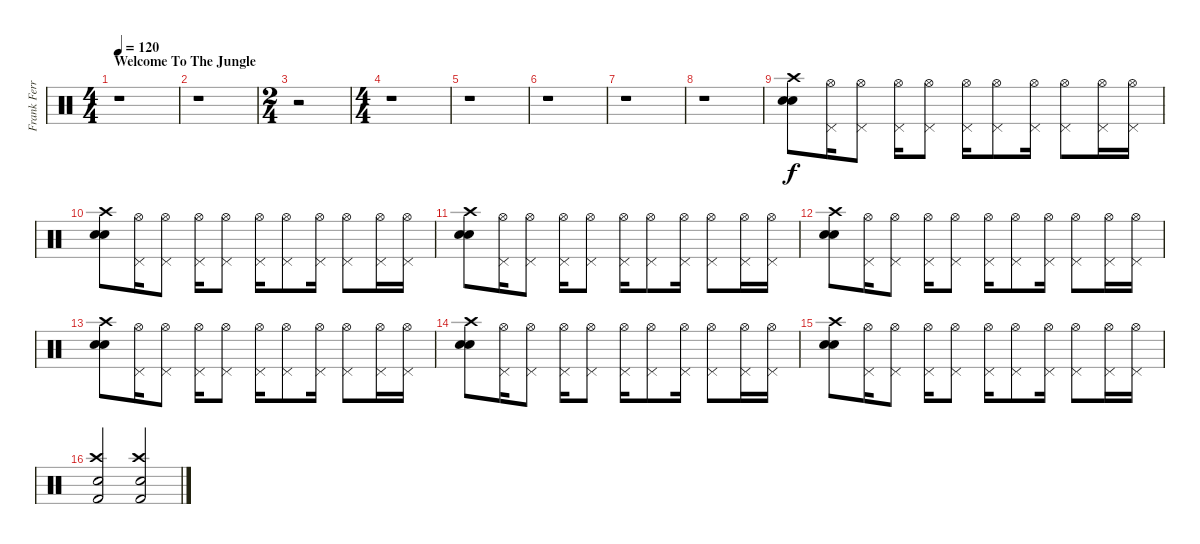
\track ("Frank Ferrer" "Frank Ferr") {instrument percussion}
\staff {score}
\articulation defaults
\ts (4 4)
\section ("" "Welcome To The Jungle")
\tempo 120
\tempo 104
\tempo 120
\clef neutral
\ks c
r.1{dy f} |
r.1 |
\ts (2 4)
r.2 |
\ts (4 4)
r.1 |
r.1 |
r.1 |
r.1 |
r.1 |
("Electric Snare (hit)" "Crash high (hit)" "Snare (hit) 2").8 ("Pedal Hi-Hat (hit)" "Hi-Hat (open)").16 ("Pedal Hi-Hat (hit)" "Hi-Hat (open)").8 ("Pedal Hi-Hat (hit)" "Hi-Hat (open)").16 ("Pedal Hi-Hat (hit)" "Hi-Hat (open)").8 ("Pedal Hi-Hat (hit)" "Hi-Hat (open)").16 ("Pedal Hi-Hat (hit)" "Hi-Hat (open)").8 ("Pedal Hi-Hat (hit)" "Hi-Hat (open)").16 ("Pedal Hi-Hat (hit)" "Hi-Hat (open)").8 ("Pedal Hi-Hat (hit)" "Hi-Hat (open)").16 ("Pedal Hi-Hat (hit)" "Hi-Hat (open)").16 |
("Electric Snare (hit)" "Crash high (hit)" "Snare (hit) 2").8 ("Pedal Hi-Hat (hit)" "Hi-Hat (open)").16 ("Pedal Hi-Hat (hit)" "Hi-Hat (open)").8 ("Pedal Hi-Hat (hit)" "Hi-Hat (open)").16 ("Pedal Hi-Hat (hit)" "Hi-Hat (open)").8 ("Pedal Hi-Hat (hit)" "Hi-Hat (open)").16 ("Pedal Hi-Hat (hit)" "Hi-Hat (open)").8 ("Pedal Hi-Hat (hit)" "Hi-Hat (open)").16 ("Pedal Hi-Hat (hit)" "Hi-Hat (open)").8 ("Pedal Hi-Hat (hit)" "Hi-Hat (open)").16 ("Pedal Hi-Hat (hit)" "Hi-Hat (open)").16 |
("Electric Snare (hit)" "Crash high (hit)" "Snare (hit) 2").8 ("Pedal Hi-Hat (hit)" "Hi-Hat (open)").16 ("Pedal Hi-Hat (hit)" "Hi-Hat (open)").8 ("Pedal Hi-Hat (hit)" "Hi-Hat (open)").16 ("Pedal Hi-Hat (hit)" "Hi-Hat (open)").8 ("Pedal Hi-Hat (hit)" "Hi-Hat (open)").16 ("Pedal Hi-Hat (hit)" "Hi-Hat (open)").8 ("Pedal Hi-Hat (hit)" "Hi-Hat (open)").16 ("Pedal Hi-Hat (hit)" "Hi-Hat (open)").8 ("Pedal Hi-Hat (hit)" "Hi-Hat (open)").16 ("Pedal Hi-Hat (hit)" "Hi-Hat (open)").16 |
("Electric Snare (hit)" "Crash high (hit)" "Snare (hit) 2").8 ("Pedal Hi-Hat (hit)" "Hi-Hat (open)").16 ("Pedal Hi-Hat (hit)" "Hi-Hat (open)").8 ("Pedal Hi-Hat (hit)" "Hi-Hat (open)").16 ("Pedal Hi-Hat (hit)" "Hi-Hat (open)").8 ("Pedal Hi-Hat (hit)" "Hi-Hat (open)").16 ("Pedal Hi-Hat (hit)" "Hi-Hat (open)").8 ("Pedal Hi-Hat (hit)" "Hi-Hat (open)").16 ("Pedal Hi-Hat (hit)" "Hi-Hat (open)").8 ("Pedal Hi-Hat (hit)" "Hi-Hat (open)").16 ("Pedal Hi-Hat (hit)" "Hi-Hat (open)").16 |
("Electric Snare (hit)" "Crash high (hit)" "Snare (hit) 2").8 ("Pedal Hi-Hat (hit)" "Hi-Hat (open)").16 ("Pedal Hi-Hat (hit)" "Hi-Hat (open)").8 ("Pedal Hi-Hat (hit)" "Hi-Hat (open)").16 ("Pedal Hi-Hat (hit)" "Hi-Hat (open)").8 ("Pedal Hi-Hat (hit)" "Hi-Hat (open)").16 ("Pedal Hi-Hat (hit)" "Hi-Hat (open)").8 ("Pedal Hi-Hat (hit)" "Hi-Hat (open)").16 ("Pedal Hi-Hat (hit)" "Hi-Hat (open)").8 ("Pedal Hi-Hat (hit)" "Hi-Hat (open)").16 ("Pedal Hi-Hat (hit)" "Hi-Hat (open)").16 |
("Electric Snare (hit)" "Crash high (hit)" "Snare (hit) 2").8 ("Pedal Hi-Hat (hit)" "Hi-Hat (open)").16 ("Pedal Hi-Hat (hit)" "Hi-Hat (open)").8 ("Pedal Hi-Hat (hit)" "Hi-Hat (open)").16 ("Pedal Hi-Hat (hit)" "Hi-Hat (open)").8 ("Pedal Hi-Hat (hit)" "Hi-Hat (open)").16 ("Pedal Hi-Hat (hit)" "Hi-Hat (open)").8 ("Pedal Hi-Hat (hit)" "Hi-Hat (open)").16 ("Pedal Hi-Hat (hit)" "Hi-Hat (open)").8 ("Pedal Hi-Hat (hit)" "Hi-Hat (open)").16 ("Pedal Hi-Hat (hit)" "Hi-Hat (open)").16 |
("Electric Snare (hit)" "Crash high (hit)" "Snare (hit) 2").8 ("Pedal Hi-Hat (hit)" "Hi-Hat (open)").16 ("Pedal Hi-Hat (hit)" "Hi-Hat (open)").8 ("Pedal Hi-Hat (hit)" "Hi-Hat (open)").16 ("Pedal Hi-Hat (hit)" "Hi-Hat (open)").8 ("Pedal Hi-Hat (hit)" "Hi-Hat (open)").16 ("Pedal Hi-Hat (hit)" "Hi-Hat (open)").8 ("Pedal Hi-Hat (hit)" "Hi-Hat (open)").16 ("Pedal Hi-Hat (hit)" "Hi-Hat (open)").8 ("Pedal Hi-Hat (hit)" "Hi-Hat (open)").16 ("Pedal Hi-Hat (hit)" "Hi-Hat (open)").16 |
("Kick (hit) 2" "Electric Snare (hit)" "Crash high (hit)").2 ("Kick (hit) 2" "Electric Snare (hit)" "Crash high (hit)").2
